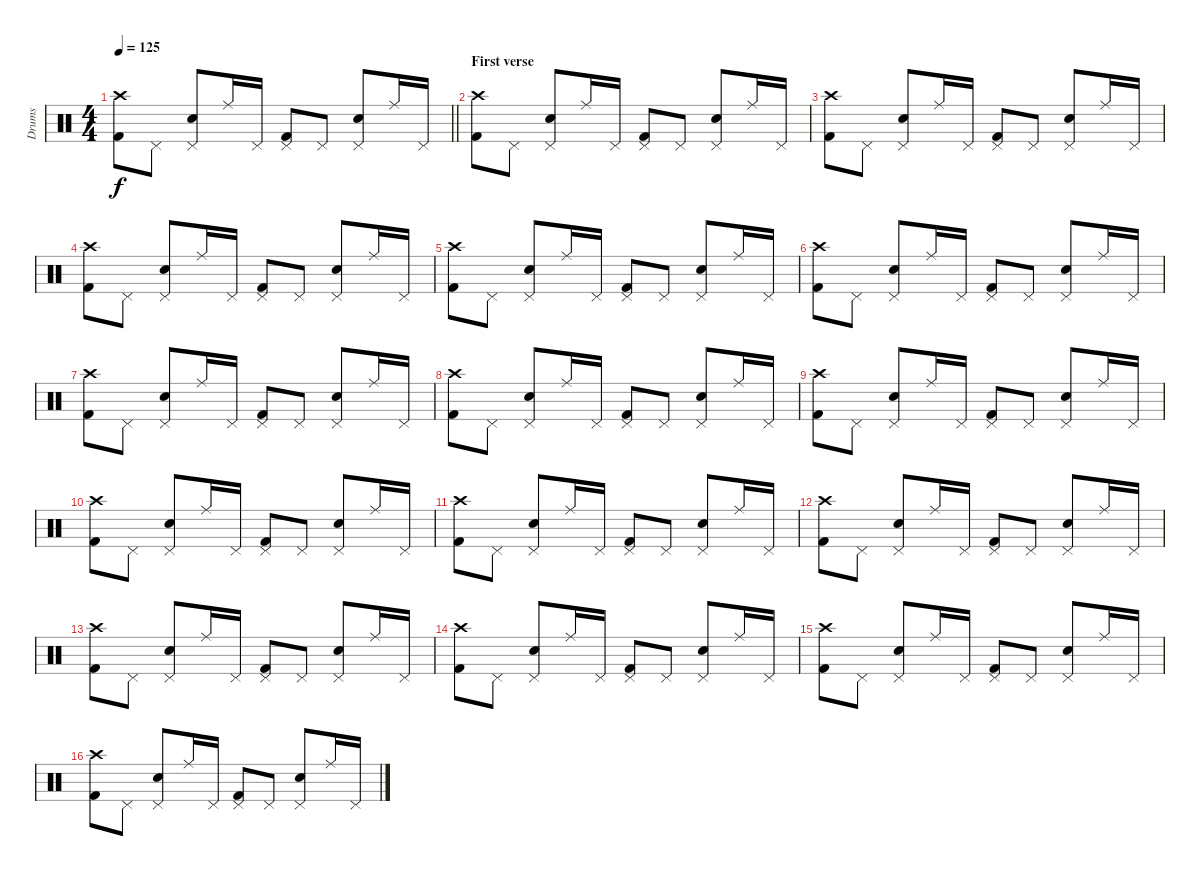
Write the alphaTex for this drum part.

\track ("Drums" "Drums") {instrument percussion}
\staff {score}
\articulation defaults
\ts (4 4)
\tempo 125
\clef neutral
\barLineRight lightlight
\ks c
("Crash high (hit)" "Kick (hit) 2").8{dy f} "Pedal Hi-Hat (hit)".8 ("Pedal Hi-Hat (hit)" "Snare (hit) 2").8 "Ride (middle)".16 "Pedal Hi-Hat (hit)".16 ("Pedal Hi-Hat (hit)" "Kick (hit) 2").8 "Pedal Hi-Hat (hit)".8 ("Pedal Hi-Hat (hit)" "Snare (hit) 2").8 "Ride (middle)".16 "Pedal Hi-Hat (hit)".16 |
\section ("" "First verse")
("Crash high (hit)" "Kick (hit) 2").8 "Pedal Hi-Hat (hit)".8 ("Pedal Hi-Hat (hit)" "Snare (hit) 2").8 "Ride (middle)".16 "Pedal Hi-Hat (hit)".16 ("Pedal Hi-Hat (hit)" "Kick (hit) 2").8 "Pedal Hi-Hat (hit)".8 ("Pedal Hi-Hat (hit)" "Snare (hit) 2").8 "Ride (middle)".16 "Pedal Hi-Hat (hit)".16 |
("Crash high (hit)" "Kick (hit) 2").8 "Pedal Hi-Hat (hit)".8 ("Pedal Hi-Hat (hit)" "Snare (hit) 2").8 "Ride (middle)".16 "Pedal Hi-Hat (hit)".16 ("Pedal Hi-Hat (hit)" "Kick (hit) 2").8 "Pedal Hi-Hat (hit)".8 ("Pedal Hi-Hat (hit)" "Snare (hit) 2").8 "Ride (middle)".16 "Pedal Hi-Hat (hit)".16 |
("Crash high (hit)" "Kick (hit) 2").8 "Pedal Hi-Hat (hit)".8 ("Pedal Hi-Hat (hit)" "Snare (hit) 2").8 "Ride (middle)".16 "Pedal Hi-Hat (hit)".16 ("Pedal Hi-Hat (hit)" "Kick (hit) 2").8 "Pedal Hi-Hat (hit)".8 ("Pedal Hi-Hat (hit)" "Snare (hit) 2").8 "Ride (middle)".16 "Pedal Hi-Hat (hit)".16 |
("Crash high (hit)" "Kick (hit) 2").8 "Pedal Hi-Hat (hit)".8 ("Pedal Hi-Hat (hit)" "Snare (hit) 2").8 "Ride (middle)".16 "Pedal Hi-Hat (hit)".16 ("Pedal Hi-Hat (hit)" "Kick (hit) 2").8 "Pedal Hi-Hat (hit)".8 ("Pedal Hi-Hat (hit)" "Snare (hit) 2").8 "Ride (middle)".16 "Pedal Hi-Hat (hit)".16 |
("Crash high (hit)" "Kick (hit) 2").8 "Pedal Hi-Hat (hit)".8 ("Pedal Hi-Hat (hit)" "Snare (hit) 2").8 "Ride (middle)".16 "Pedal Hi-Hat (hit)".16 ("Pedal Hi-Hat (hit)" "Kick (hit) 2").8 "Pedal Hi-Hat (hit)".8 ("Pedal Hi-Hat (hit)" "Snare (hit) 2").8 "Ride (middle)".16 "Pedal Hi-Hat (hit)".16 |
("Crash high (hit)" "Kick (hit) 2").8 "Pedal Hi-Hat (hit)".8 ("Pedal Hi-Hat (hit)" "Snare (hit) 2").8 "Ride (middle)".16 "Pedal Hi-Hat (hit)".16 ("Pedal Hi-Hat (hit)" "Kick (hit) 2").8 "Pedal Hi-Hat (hit)".8 ("Pedal Hi-Hat (hit)" "Snare (hit) 2").8 "Ride (middle)".16 "Pedal Hi-Hat (hit)".16 |
("Crash high (hit)" "Kick (hit) 2").8 "Pedal Hi-Hat (hit)".8 ("Pedal Hi-Hat (hit)" "Snare (hit) 2").8 "Ride (middle)".16 "Pedal Hi-Hat (hit)".16 ("Pedal Hi-Hat (hit)" "Kick (hit) 2").8 "Pedal Hi-Hat (hit)".8 ("Pedal Hi-Hat (hit)" "Snare (hit) 2").8 "Ride (middle)".16 "Pedal Hi-Hat (hit)".16 |
("Crash high (hit)" "Kick (hit) 2").8 "Pedal Hi-Hat (hit)".8 ("Pedal Hi-Hat (hit)" "Snare (hit) 2").8 "Ride (middle)".16 "Pedal Hi-Hat (hit)".16 ("Pedal Hi-Hat (hit)" "Kick (hit) 2").8 "Pedal Hi-Hat (hit)".8 ("Pedal Hi-Hat (hit)" "Snare (hit) 2").8 "Ride (middle)".16 "Pedal Hi-Hat (hit)".16 |
("Crash high (hit)" "Kick (hit) 2").8 "Pedal Hi-Hat (hit)".8 ("Pedal Hi-Hat (hit)" "Snare (hit) 2").8 "Ride (middle)".16 "Pedal Hi-Hat (hit)".16 ("Pedal Hi-Hat (hit)" "Kick (hit) 2").8 "Pedal Hi-Hat (hit)".8 ("Pedal Hi-Hat (hit)" "Snare (hit) 2").8 "Ride (middle)".16 "Pedal Hi-Hat (hit)".16 |
("Crash high (hit)" "Kick (hit) 2").8 "Pedal Hi-Hat (hit)".8 ("Pedal Hi-Hat (hit)" "Snare (hit) 2").8 "Ride (middle)".16 "Pedal Hi-Hat (hit)".16 ("Pedal Hi-Hat (hit)" "Kick (hit) 2").8 "Pedal Hi-Hat (hit)".8 ("Pedal Hi-Hat (hit)" "Snare (hit) 2").8 "Ride (middle)".16 "Pedal Hi-Hat (hit)".16 |
("Crash high (hit)" "Kick (hit) 2").8 "Pedal Hi-Hat (hit)".8 ("Pedal Hi-Hat (hit)" "Snare (hit) 2").8 "Ride (middle)".16 "Pedal Hi-Hat (hit)".16 ("Pedal Hi-Hat (hit)" "Kick (hit) 2").8 "Pedal Hi-Hat (hit)".8 ("Pedal Hi-Hat (hit)" "Snare (hit) 2").8 "Ride (middle)".16 "Pedal Hi-Hat (hit)".16 |
("Crash high (hit)" "Kick (hit) 2").8 "Pedal Hi-Hat (hit)".8 ("Pedal Hi-Hat (hit)" "Snare (hit) 2").8 "Ride (middle)".16 "Pedal Hi-Hat (hit)".16 ("Pedal Hi-Hat (hit)" "Kick (hit) 2").8 "Pedal Hi-Hat (hit)".8 ("Pedal Hi-Hat (hit)" "Snare (hit) 2").8 "Ride (middle)".16 "Pedal Hi-Hat (hit)".16 |
("Crash high (hit)" "Kick (hit) 2").8 "Pedal Hi-Hat (hit)".8 ("Pedal Hi-Hat (hit)" "Snare (hit) 2").8 "Ride (middle)".16 "Pedal Hi-Hat (hit)".16 ("Pedal Hi-Hat (hit)" "Kick (hit) 2").8 "Pedal Hi-Hat (hit)".8 ("Pedal Hi-Hat (hit)" "Snare (hit) 2").8 "Ride (middle)".16 "Pedal Hi-Hat (hit)".16 |
("Crash high (hit)" "Kick (hit) 2").8 "Pedal Hi-Hat (hit)".8 ("Pedal Hi-Hat (hit)" "Snare (hit) 2").8 "Ride (middle)".16 "Pedal Hi-Hat (hit)".16 ("Pedal Hi-Hat (hit)" "Kick (hit) 2").8 "Pedal Hi-Hat (hit)".8 ("Pedal Hi-Hat (hit)" "Snare (hit) 2").8 "Ride (middle)".16 "Pedal Hi-Hat (hit)".16 |
("Crash high (hit)" "Kick (hit) 2").8 "Pedal Hi-Hat (hit)".8 ("Pedal Hi-Hat (hit)" "Snare (hit) 2").8 "Ride (middle)".16 "Pedal Hi-Hat (hit)".16 ("Pedal Hi-Hat (hit)" "Kick (hit) 2").8 "Pedal Hi-Hat (hit)".8 ("Pedal Hi-Hat (hit)" "Snare (hit) 2").8 "Ride (middle)".16 "Pedal Hi-Hat (hit)".16
